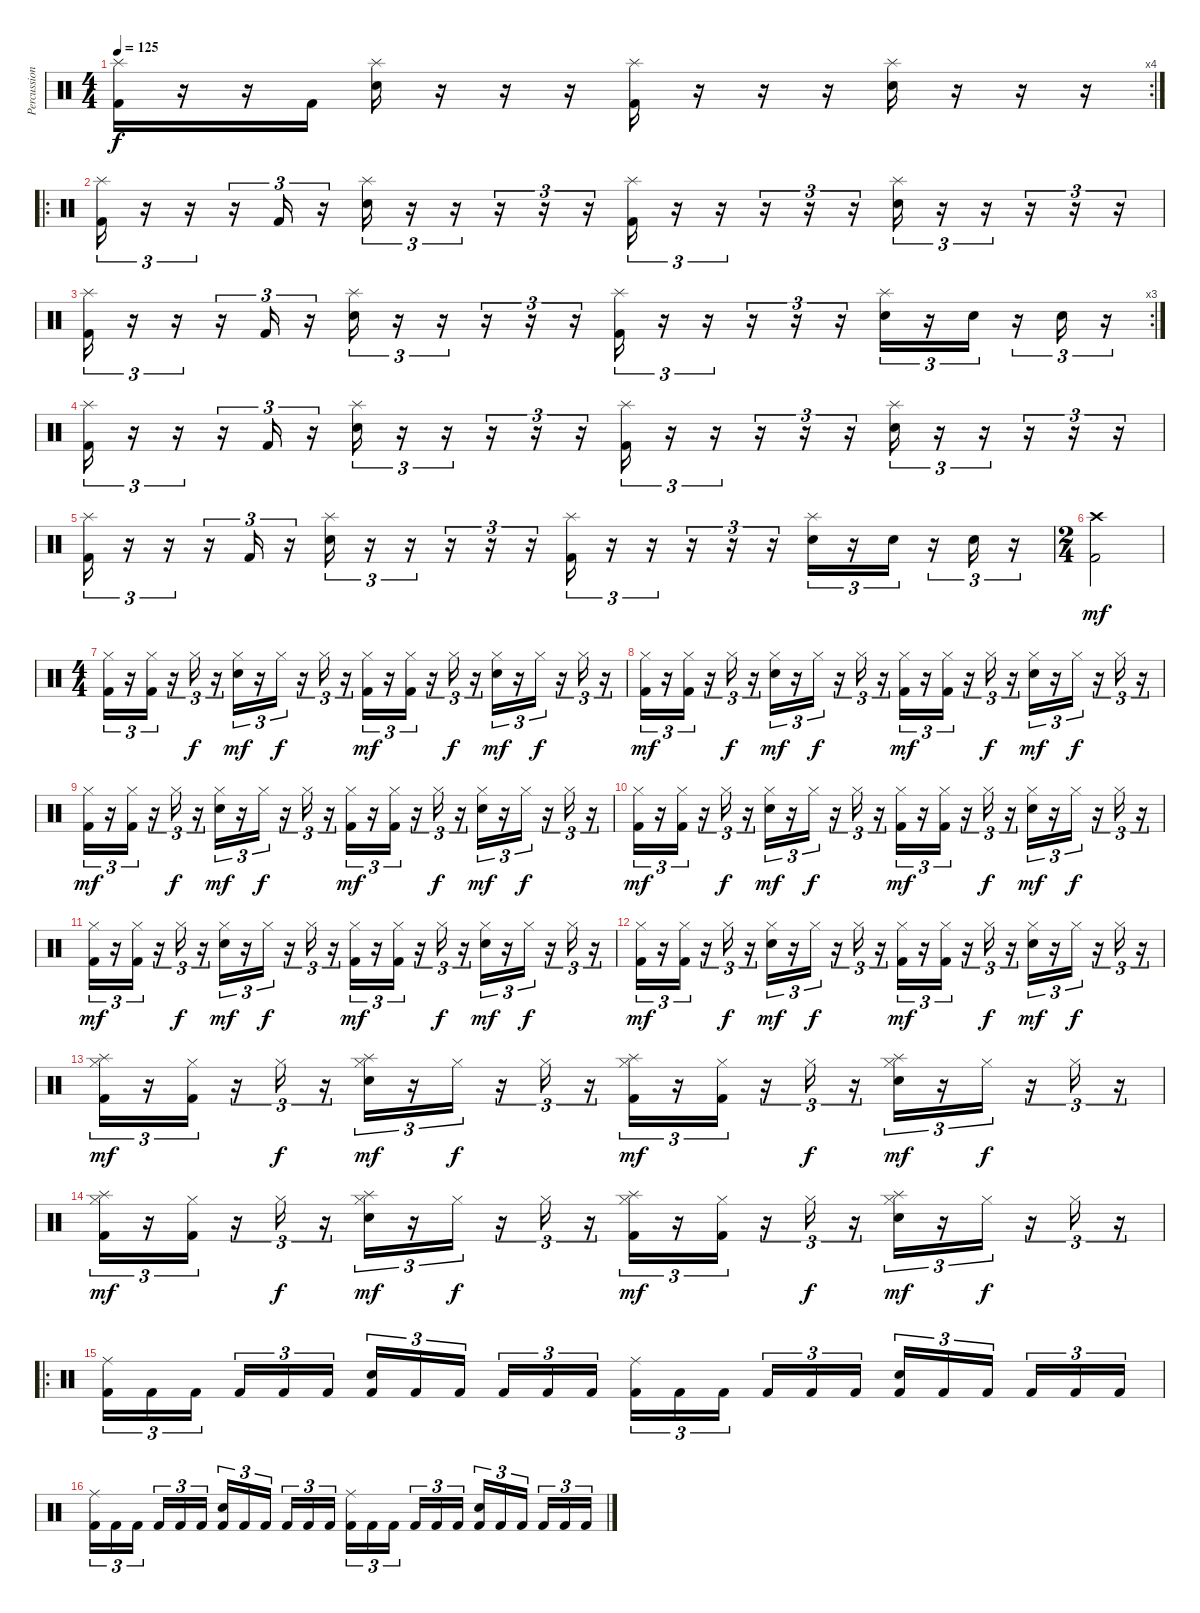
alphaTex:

\track ("Percussions" "Percussion") {instrument percussion}
\staff {score}
\articulation defaults
\rc 4
\ts (4 4)
\tempo 125
\clef neutral
\ks c
("Splash (hit)" "Kick (hit) 2").16{dy f} r.16 r.16 "Kick (hit) 2".16 ("Splash (hit)" "Snare (hit) 2").16 r.16 r.16 r.16 ("Splash (hit)" "Kick (hit) 2").16 r.16 r.16 r.16 ("Splash (hit)" "Snare (hit) 2").16 r.16 r.16 r.16 |
\ro
("Splash (hit)" "Kick (hit) 2").16{tu (3 2)} r.16{tu (3 2)} r.16{tu (3 2)} r.16{tu (3 2)} "Kick (hit) 2".16{tu (3 2)} r.16{tu (3 2)} ("Splash (hit)" "Snare (hit) 2").16{tu (3 2)} r.16{tu (3 2)} r.16{tu (3 2)} r.16{tu (3 2)} r.16{tu (3 2)} r.16{tu (3 2)} ("Splash (hit)" "Kick (hit) 2").16{tu (3 2)} r.16{tu (3 2)} r.16{tu (3 2)} r.16{tu (3 2)} r.16{tu (3 2)} r.16{tu (3 2)} ("Splash (hit)" "Snare (hit) 2").16{tu (3 2)} r.16{tu (3 2)} r.16{tu (3 2)} r.16{tu (3 2)} r.16{tu (3 2)} r.16{tu (3 2)} |
\rc 3
("Splash (hit)" "Kick (hit) 2").16{tu (3 2)} r.16{tu (3 2)} r.16{tu (3 2)} r.16{tu (3 2)} "Kick (hit) 2".16{tu (3 2)} r.16{tu (3 2)} ("Splash (hit)" "Snare (hit) 2").16{tu (3 2)} r.16{tu (3 2)} r.16{tu (3 2)} r.16{tu (3 2)} r.16{tu (3 2)} r.16{tu (3 2)} ("Splash (hit)" "Kick (hit) 2").16{tu (3 2)} r.16{tu (3 2)} r.16{tu (3 2)} r.16{tu (3 2)} r.16{tu (3 2)} r.16{tu (3 2)} ("Splash (hit)" "Snare (hit) 2").16{tu (3 2)} r.16{tu (3 2)} "Snare (hit) 2".16{tu (3 2)} r.16{tu (3 2)} "Snare (hit) 2".16{tu (3 2)} r.16{tu (3 2)} |
("Splash (hit)" "Kick (hit) 2").16{tu (3 2)} r.16{tu (3 2)} r.16{tu (3 2)} r.16{tu (3 2)} "Kick (hit) 2".16{tu (3 2)} r.16{tu (3 2)} ("Splash (hit)" "Snare (hit) 2").16{tu (3 2)} r.16{tu (3 2)} r.16{tu (3 2)} r.16{tu (3 2)} r.16{tu (3 2)} r.16{tu (3 2)} ("Splash (hit)" "Kick (hit) 2").16{tu (3 2)} r.16{tu (3 2)} r.16{tu (3 2)} r.16{tu (3 2)} r.16{tu (3 2)} r.16{tu (3 2)} ("Splash (hit)" "Snare (hit) 2").16{tu (3 2)} r.16{tu (3 2)} r.16{tu (3 2)} r.16{tu (3 2)} r.16{tu (3 2)} r.16{tu (3 2)} |
("Splash (hit)" "Kick (hit) 2").16{tu (3 2)} r.16{tu (3 2)} r.16{tu (3 2)} r.16{tu (3 2)} "Kick (hit) 2".16{tu (3 2)} r.16{tu (3 2)} ("Splash (hit)" "Snare (hit) 2").16{tu (3 2)} r.16{tu (3 2)} r.16{tu (3 2)} r.16{tu (3 2)} r.16{tu (3 2)} r.16{tu (3 2)} ("Splash (hit)" "Kick (hit) 2").16{tu (3 2)} r.16{tu (3 2)} r.16{tu (3 2)} r.16{tu (3 2)} r.16{tu (3 2)} r.16{tu (3 2)} ("Splash (hit)" "Snare (hit) 2").16{tu (3 2)} r.16{tu (3 2)} "Snare (hit) 2".16{tu (3 2)} r.16{tu (3 2)} "Snare (hit) 2".16{tu (3 2)} r.16{tu (3 2)} |
\ts (2 4)
("Kick (hit) 2" "Crash high (hit)").2{dy mf} |
\ts (4 4)
("Hi-Hat (closed)" "Kick (hit) 2").16{tu (3 2)} r.16{tu (3 2)} ("Hi-Hat (closed)" "Kick (hit) 2").16{tu (3 2)} r.16{tu (3 2)} "Hi-Hat (closed)".16{tu (3 2) dy f} r.16{tu (3 2)} ("Hi-Hat (closed)" "Snare (hit) 2").16{tu (3 2) dy mf} r.16{tu (3 2)} "Hi-Hat (closed)".16{tu (3 2) dy f} r.16{tu (3 2)} "Hi-Hat (closed)".16{tu (3 2)} r.16{tu (3 2)} ("Hi-Hat (closed)" "Kick (hit) 2").16{tu (3 2) dy mf} r.16{tu (3 2)} ("Hi-Hat (closed)" "Kick (hit) 2").16{tu (3 2)} r.16{tu (3 2)} "Hi-Hat (closed)".16{tu (3 2) dy f} r.16{tu (3 2)} ("Hi-Hat (closed)" "Snare (hit) 2").16{tu (3 2) dy mf} r.16{tu (3 2)} "Hi-Hat (closed)".16{tu (3 2) dy f} r.16{tu (3 2)} "Hi-Hat (closed)".16{tu (3 2)} r.16{tu (3 2)} |
("Hi-Hat (closed)" "Kick (hit) 2").16{tu (3 2) dy mf} r.16{tu (3 2)} ("Hi-Hat (closed)" "Kick (hit) 2").16{tu (3 2)} r.16{tu (3 2)} "Hi-Hat (closed)".16{tu (3 2) dy f} r.16{tu (3 2)} ("Hi-Hat (closed)" "Snare (hit) 2").16{tu (3 2) dy mf} r.16{tu (3 2)} "Hi-Hat (closed)".16{tu (3 2) dy f} r.16{tu (3 2)} "Hi-Hat (closed)".16{tu (3 2)} r.16{tu (3 2)} ("Hi-Hat (closed)" "Kick (hit) 2").16{tu (3 2) dy mf} r.16{tu (3 2)} ("Hi-Hat (closed)" "Kick (hit) 2").16{tu (3 2)} r.16{tu (3 2)} "Hi-Hat (closed)".16{tu (3 2) dy f} r.16{tu (3 2)} ("Hi-Hat (closed)" "Snare (hit) 2").16{tu (3 2) dy mf} r.16{tu (3 2)} "Hi-Hat (closed)".16{tu (3 2) dy f} r.16{tu (3 2)} "Hi-Hat (closed)".16{tu (3 2)} r.16{tu (3 2)} |
("Hi-Hat (closed)" "Kick (hit) 2").16{tu (3 2) dy mf} r.16{tu (3 2)} ("Hi-Hat (closed)" "Kick (hit) 2").16{tu (3 2)} r.16{tu (3 2)} "Hi-Hat (closed)".16{tu (3 2) dy f} r.16{tu (3 2)} ("Hi-Hat (closed)" "Snare (hit) 2").16{tu (3 2) dy mf} r.16{tu (3 2)} "Hi-Hat (closed)".16{tu (3 2) dy f} r.16{tu (3 2)} "Hi-Hat (closed)".16{tu (3 2)} r.16{tu (3 2)} ("Hi-Hat (closed)" "Kick (hit) 2").16{tu (3 2) dy mf} r.16{tu (3 2)} ("Hi-Hat (closed)" "Kick (hit) 2").16{tu (3 2)} r.16{tu (3 2)} "Hi-Hat (closed)".16{tu (3 2) dy f} r.16{tu (3 2)} ("Hi-Hat (closed)" "Snare (hit) 2").16{tu (3 2) dy mf} r.16{tu (3 2)} "Hi-Hat (closed)".16{tu (3 2) dy f} r.16{tu (3 2)} "Hi-Hat (closed)".16{tu (3 2)} r.16{tu (3 2)} |
("Hi-Hat (closed)" "Kick (hit) 2").16{tu (3 2) dy mf} r.16{tu (3 2)} ("Hi-Hat (closed)" "Kick (hit) 2").16{tu (3 2)} r.16{tu (3 2)} "Hi-Hat (closed)".16{tu (3 2) dy f} r.16{tu (3 2)} ("Hi-Hat (closed)" "Snare (hit) 2").16{tu (3 2) dy mf} r.16{tu (3 2)} "Hi-Hat (closed)".16{tu (3 2) dy f} r.16{tu (3 2)} "Hi-Hat (closed)".16{tu (3 2)} r.16{tu (3 2)} ("Hi-Hat (closed)" "Kick (hit) 2").16{tu (3 2) dy mf} r.16{tu (3 2)} ("Hi-Hat (closed)" "Kick (hit) 2").16{tu (3 2)} r.16{tu (3 2)} "Hi-Hat (closed)".16{tu (3 2) dy f} r.16{tu (3 2)} ("Hi-Hat (closed)" "Snare (hit) 2").16{tu (3 2) dy mf} r.16{tu (3 2)} "Hi-Hat (closed)".16{tu (3 2) dy f} r.16{tu (3 2)} "Hi-Hat (closed)".16{tu (3 2)} r.16{tu (3 2)} |
("Hi-Hat (closed)" "Kick (hit) 2").16{tu (3 2) dy mf} r.16{tu (3 2)} ("Hi-Hat (closed)" "Kick (hit) 2").16{tu (3 2)} r.16{tu (3 2)} "Hi-Hat (closed)".16{tu (3 2) dy f} r.16{tu (3 2)} ("Hi-Hat (closed)" "Snare (hit) 2").16{tu (3 2) dy mf} r.16{tu (3 2)} "Hi-Hat (closed)".16{tu (3 2) dy f} r.16{tu (3 2)} "Hi-Hat (closed)".16{tu (3 2)} r.16{tu (3 2)} ("Hi-Hat (closed)" "Kick (hit) 2").16{tu (3 2) dy mf} r.16{tu (3 2)} ("Hi-Hat (closed)" "Kick (hit) 2").16{tu (3 2)} r.16{tu (3 2)} "Hi-Hat (closed)".16{tu (3 2) dy f} r.16{tu (3 2)} ("Hi-Hat (closed)" "Snare (hit) 2").16{tu (3 2) dy mf} r.16{tu (3 2)} "Hi-Hat (closed)".16{tu (3 2) dy f} r.16{tu (3 2)} "Hi-Hat (closed)".16{tu (3 2)} r.16{tu (3 2)} |
("Hi-Hat (closed)" "Kick (hit) 2").16{tu (3 2) dy mf} r.16{tu (3 2)} ("Hi-Hat (closed)" "Kick (hit) 2").16{tu (3 2)} r.16{tu (3 2)} "Hi-Hat (closed)".16{tu (3 2) dy f} r.16{tu (3 2)} ("Hi-Hat (closed)" "Snare (hit) 2").16{tu (3 2) dy mf} r.16{tu (3 2)} "Hi-Hat (closed)".16{tu (3 2) dy f} r.16{tu (3 2)} "Hi-Hat (closed)".16{tu (3 2)} r.16{tu (3 2)} ("Hi-Hat (closed)" "Kick (hit) 2").16{tu (3 2) dy mf} r.16{tu (3 2)} ("Hi-Hat (closed)" "Kick (hit) 2").16{tu (3 2)} r.16{tu (3 2)} "Hi-Hat (closed)".16{tu (3 2) dy f} r.16{tu (3 2)} ("Hi-Hat (closed)" "Snare (hit) 2").16{tu (3 2) dy mf} r.16{tu (3 2)} "Hi-Hat (closed)".16{tu (3 2) dy f} r.16{tu (3 2)} "Hi-Hat (closed)".16{tu (3 2)} r.16{tu (3 2)} |
("Hi-Hat (closed)" "Kick (hit) 2" "Splash (hit)").16{tu (3 2) dy mf} r.16{tu (3 2)} ("Hi-Hat (closed)" "Kick (hit) 2").16{tu (3 2)} r.16{tu (3 2)} "Hi-Hat (closed)".16{tu (3 2) dy f} r.16{tu (3 2)} ("Hi-Hat (closed)" "Snare (hit) 2" "Splash (hit)").16{tu (3 2) dy mf} r.16{tu (3 2)} "Hi-Hat (closed)".16{tu (3 2) dy f} r.16{tu (3 2)} "Hi-Hat (closed)".16{tu (3 2)} r.16{tu (3 2)} ("Hi-Hat (closed)" "Kick (hit) 2" "Splash (hit)").16{tu (3 2) dy mf} r.16{tu (3 2)} ("Hi-Hat (closed)" "Kick (hit) 2").16{tu (3 2)} r.16{tu (3 2)} "Hi-Hat (closed)".16{tu (3 2) dy f} r.16{tu (3 2)} ("Hi-Hat (closed)" "Snare (hit) 2" "Splash (hit)").16{tu (3 2) dy mf} r.16{tu (3 2)} "Hi-Hat (closed)".16{tu (3 2) dy f} r.16{tu (3 2)} "Hi-Hat (closed)".16{tu (3 2)} r.16{tu (3 2)} |
("Hi-Hat (closed)" "Kick (hit) 2" "Splash (hit)").16{tu (3 2) dy mf} r.16{tu (3 2)} ("Hi-Hat (closed)" "Kick (hit) 2").16{tu (3 2)} r.16{tu (3 2)} "Hi-Hat (closed)".16{tu (3 2) dy f} r.16{tu (3 2)} ("Hi-Hat (closed)" "Snare (hit) 2" "Splash (hit)").16{tu (3 2) dy mf} r.16{tu (3 2)} "Hi-Hat (closed)".16{tu (3 2) dy f} r.16{tu (3 2)} "Hi-Hat (closed)".16{tu (3 2)} r.16{tu (3 2)} ("Hi-Hat (closed)" "Kick (hit) 2" "Splash (hit)").16{tu (3 2) dy mf} r.16{tu (3 2)} ("Hi-Hat (closed)" "Kick (hit) 2").16{tu (3 2)} r.16{tu (3 2)} "Hi-Hat (closed)".16{tu (3 2) dy f} r.16{tu (3 2)} ("Hi-Hat (closed)" "Snare (hit) 2" "Splash (hit)").16{tu (3 2) dy mf} r.16{tu (3 2)} "Hi-Hat (closed)".16{tu (3 2) dy f} r.16{tu (3 2)} "Hi-Hat (closed)".16{tu (3 2)} r.16{tu (3 2)} |
\ro
("Kick (hit) 2" "Ride (middle)").16{tu (3 2)} "Kick (hit) 2".16{tu (3 2)} "Kick (hit) 2".16{tu (3 2)} "Kick (hit) 2".16{tu (3 2)} "Kick (hit) 2".16{tu (3 2)} "Kick (hit) 2".16{tu (3 2)} ("Kick (hit) 2" "Snare (hit) 2").16{tu (3 2)} "Kick (hit) 2".16{tu (3 2)} "Kick (hit) 2".16{tu (3 2)} "Kick (hit) 2".16{tu (3 2)} "Kick (hit) 2".16{tu (3 2)} "Kick (hit) 2".16{tu (3 2)} ("Kick (hit) 2" "Ride (middle)").16{tu (3 2)} "Kick (hit) 2".16{tu (3 2)} "Kick (hit) 2".16{tu (3 2)} "Kick (hit) 2".16{tu (3 2)} "Kick (hit) 2".16{tu (3 2)} "Kick (hit) 2".16{tu (3 2)} ("Kick (hit) 2" "Snare (hit) 2").16{tu (3 2)} "Kick (hit) 2".16{tu (3 2)} "Kick (hit) 2".16{tu (3 2)} "Kick (hit) 2".16{tu (3 2)} "Kick (hit) 2".16{tu (3 2)} "Kick (hit) 2".16{tu (3 2)} |
("Kick (hit) 2" "Ride (middle)").16{tu (3 2)} "Kick (hit) 2".16{tu (3 2)} "Kick (hit) 2".16{tu (3 2)} "Kick (hit) 2".16{tu (3 2)} "Kick (hit) 2".16{tu (3 2)} "Kick (hit) 2".16{tu (3 2)} ("Kick (hit) 2" "Snare (hit) 2").16{tu (3 2)} "Kick (hit) 2".16{tu (3 2)} "Kick (hit) 2".16{tu (3 2)} "Kick (hit) 2".16{tu (3 2)} "Kick (hit) 2".16{tu (3 2)} "Kick (hit) 2".16{tu (3 2)} ("Kick (hit) 2" "Ride (middle)").16{tu (3 2)} "Kick (hit) 2".16{tu (3 2)} "Kick (hit) 2".16{tu (3 2)} "Kick (hit) 2".16{tu (3 2)} "Kick (hit) 2".16{tu (3 2)} "Kick (hit) 2".16{tu (3 2)} ("Kick (hit) 2" "Snare (hit) 2").16{tu (3 2)} "Kick (hit) 2".16{tu (3 2)} "Kick (hit) 2".16{tu (3 2)} "Kick (hit) 2".16{tu (3 2)} "Kick (hit) 2".16{tu (3 2)} "Kick (hit) 2".16{tu (3 2)}
